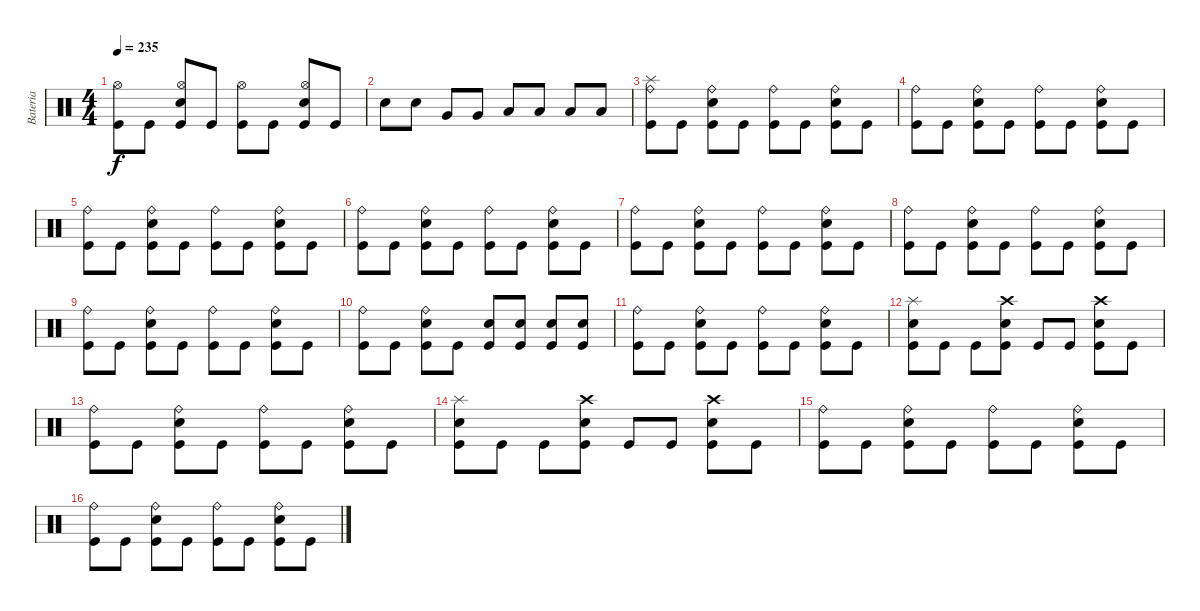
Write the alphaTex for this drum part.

\track ("Bateria" "Bateria") {instrument percussion}
\staff {score}
\articulation defaults
\ts (4 4)
\tempo 235
\clef neutral
\ks c
("Kick (hit)" "Hi-Hat (open)").8{dy f} "Kick (hit)".8 ("Kick (hit)" "Electric Snare (hit)" "Hi-Hat (open)").8 "Kick (hit)".8 ("Kick (hit)" "Hi-Hat (open)").8 "Kick (hit)".8 ("Kick (hit)" "Electric Snare (hit)" "Hi-Hat (open)").8 "Kick (hit)".8 |
"Electric Snare (hit)".8 "Electric Snare (hit)".8 "Very Low Tom (hit)".8 "Very Low Tom (hit)".8 "Low Floor Tom (hit)".8 "Low Floor Tom (hit)".8 "Low Tom (hit)".8 "Low Tom (hit)".8 |
("Kick (hit)" "Ride (bell)" "Splash (hit)").8 "Kick (hit)".8 ("Kick (hit)" "Electric Snare (hit)" "Ride (bell)").8 "Kick (hit)".8 ("Kick (hit)" "Ride (bell)").8 "Kick (hit)".8 ("Kick (hit)" "Electric Snare (hit)" "Ride (bell)").8 "Kick (hit)".8 |
("Kick (hit)" "Ride (bell)").8 "Kick (hit)".8 ("Kick (hit)" "Electric Snare (hit)" "Ride (bell)").8 "Kick (hit)".8 ("Kick (hit)" "Ride (bell)").8 "Kick (hit)".8 ("Kick (hit)" "Electric Snare (hit)" "Ride (bell)").8 "Kick (hit)".8 |
("Kick (hit)" "Ride (bell)").8 "Kick (hit)".8 ("Kick (hit)" "Electric Snare (hit)" "Ride (bell)").8 "Kick (hit)".8 ("Kick (hit)" "Ride (bell)").8 "Kick (hit)".8 ("Kick (hit)" "Electric Snare (hit)" "Ride (bell)").8 "Kick (hit)".8 |
("Kick (hit)" "Ride (bell)").8 "Kick (hit)".8 ("Kick (hit)" "Electric Snare (hit)" "Ride (bell)").8 "Kick (hit)".8 ("Kick (hit)" "Ride (bell)").8 "Kick (hit)".8 ("Kick (hit)" "Electric Snare (hit)" "Ride (bell)").8 "Kick (hit)".8 |
("Kick (hit)" "Ride (bell)").8 "Kick (hit)".8 ("Kick (hit)" "Electric Snare (hit)" "Ride (bell)").8 "Kick (hit)".8 ("Kick (hit)" "Ride (bell)").8 "Kick (hit)".8 ("Kick (hit)" "Electric Snare (hit)" "Ride (bell)").8 "Kick (hit)".8 |
("Kick (hit)" "Ride (bell)").8 "Kick (hit)".8 ("Kick (hit)" "Electric Snare (hit)" "Ride (bell)").8 "Kick (hit)".8 ("Kick (hit)" "Ride (bell)").8 "Kick (hit)".8 ("Kick (hit)" "Electric Snare (hit)" "Ride (bell)").8 "Kick (hit)".8 |
("Kick (hit)" "Ride (bell)").8 "Kick (hit)".8 ("Kick (hit)" "Electric Snare (hit)" "Ride (bell)").8 "Kick (hit)".8 ("Kick (hit)" "Ride (bell)").8 "Kick (hit)".8 ("Kick (hit)" "Electric Snare (hit)" "Ride (bell)").8 "Kick (hit)".8 |
("Kick (hit)" "Ride (bell)").8 "Kick (hit)".8 ("Kick (hit)" "Electric Snare (hit)" "Ride (bell)").8 "Kick (hit)".8 ("Kick (hit)" "Electric Snare (hit)").8 ("Kick (hit)" "Electric Snare (hit)").8 ("Kick (hit)" "Electric Snare (hit)").8 ("Kick (hit)" "Electric Snare (hit)").8 |
("Kick (hit)" "Ride (bell)").8 "Kick (hit)".8 ("Kick (hit)" "Electric Snare (hit)" "Ride (bell)").8 "Kick (hit)".8 ("Kick (hit)" "Ride (bell)").8 "Kick (hit)".8 ("Kick (hit)" "Electric Snare (hit)" "Ride (bell)").8 "Kick (hit)".8 |
("Kick (hit)" "Electric Snare (hit)" "Splash (hit)").8 "Kick (hit)".8 "Kick (hit)".8 ("Kick (hit)" "Electric Snare (hit)" "Crash high (hit)").8 "Kick (hit)".8 "Kick (hit)".8 ("Kick (hit)" "Electric Snare (hit)" "Crash high (hit)").8 "Kick (hit)".8 |
("Kick (hit)" "Ride (bell)").8 "Kick (hit)".8 ("Kick (hit)" "Electric Snare (hit)" "Ride (bell)").8 "Kick (hit)".8 ("Kick (hit)" "Ride (bell)").8 "Kick (hit)".8 ("Kick (hit)" "Electric Snare (hit)" "Ride (bell)").8 "Kick (hit)".8 |
("Kick (hit)" "Electric Snare (hit)" "Splash (hit)").8 "Kick (hit)".8 "Kick (hit)".8 ("Kick (hit)" "Electric Snare (hit)" "Crash high (hit)").8 "Kick (hit)".8 "Kick (hit)".8 ("Kick (hit)" "Electric Snare (hit)" "Crash high (hit)").8 "Kick (hit)".8 |
("Kick (hit)" "Ride (bell)").8 "Kick (hit)".8 ("Kick (hit)" "Electric Snare (hit)" "Ride (bell)").8 "Kick (hit)".8 ("Kick (hit)" "Ride (bell)").8 "Kick (hit)".8 ("Kick (hit)" "Electric Snare (hit)" "Ride (bell)").8 "Kick (hit)".8 |
("Kick (hit)" "Ride (bell)").8 "Kick (hit)".8 ("Kick (hit)" "Electric Snare (hit)" "Ride (bell)").8 "Kick (hit)".8 ("Kick (hit)" "Ride (bell)").8 "Kick (hit)".8 ("Kick (hit)" "Electric Snare (hit)" "Ride (bell)").8 "Kick (hit)".8
